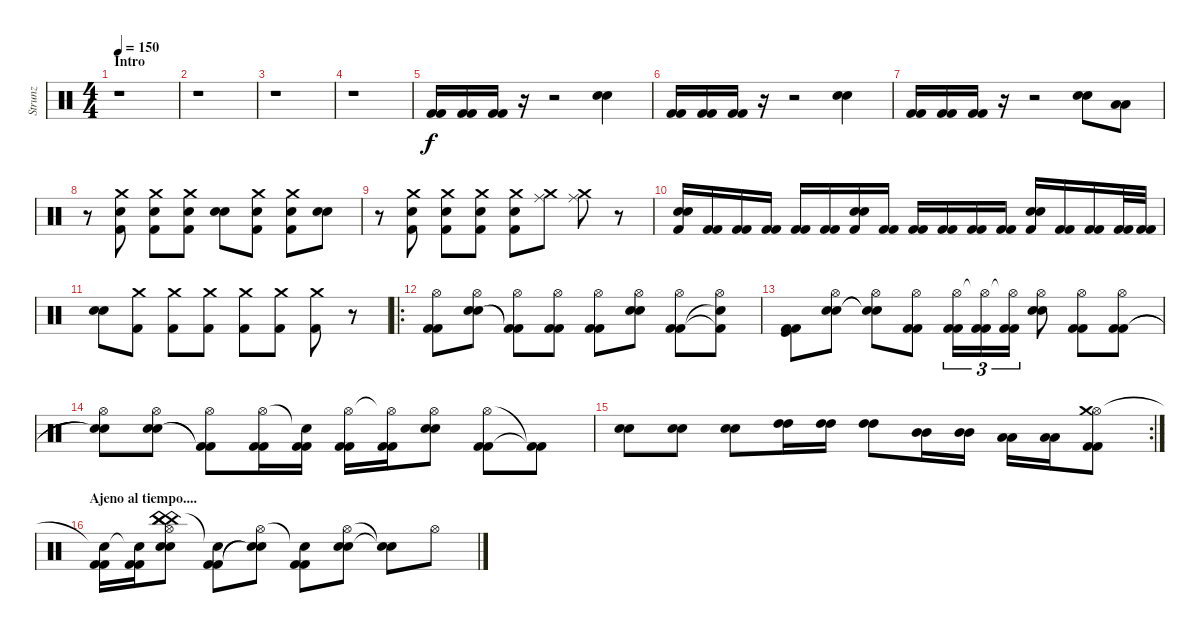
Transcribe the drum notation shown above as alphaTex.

\track ("Strunz" "Strunz") {instrument percussion}
\staff {score}
\articulation defaults
\ts (4 4)
\section ("" "Intro")
\tempo 150
\clef neutral
\ks c
r.1{dy f} |
r.1 |
r.1 |
r.1 |
("Kick (hit) 2" "Kick (hit) 2").16 ("Kick (hit) 2" "Kick (hit) 2").16 ("Kick (hit) 2" "Kick (hit) 2").16 r.16 r.2 ("Snare (hit) 2" "Snare (hit) 2").4 |
("Kick (hit) 2" "Kick (hit) 2").16 ("Kick (hit) 2" "Kick (hit) 2").16 ("Kick (hit) 2" "Kick (hit) 2").16 r.16 r.2 ("Snare (hit) 2" "Snare (hit) 2").4 |
("Kick (hit) 2" "Kick (hit) 2").16 ("Kick (hit) 2" "Kick (hit) 2").16 ("Kick (hit) 2" "Kick (hit) 2").16 r.16 r.2 ("Snare (hit) 2" "Snare (hit) 2").8 ("Low Tom (hit)" "Low Tom (hit)").8 |
r.8 ("Kick (hit) 2" "Crash medium (hit)" "Snare (hit) 2").8 ("Kick (hit) 2" "Crash medium (hit)" "Snare (hit) 2").8 ("Kick (hit) 2" "Crash medium (hit)" "Snare (hit) 2").8 ("Snare (hit) 2" "Snare (hit) 2").8 ("Kick (hit) 2" "Crash medium (hit)" "Snare (hit) 2").8 ("Kick (hit) 2" "Crash medium (hit)" "Snare (hit) 2").8 ("Snare (hit) 2" "Snare (hit) 2").8 |
r.8 ("Kick (hit) 2" "Snare (hit) 2" "Crash medium (hit)").8 ("Kick (hit) 2" "Snare (hit) 2" "Crash medium (hit)").8 ("Kick (hit) 2" "Snare (hit) 2" "Crash medium (hit)").8 ("Kick (hit) 2" "Snare (hit) 2" "Crash medium (hit)").8 ("Crash medium (hit)" "Ride (middle)").8 ("Crash medium (hit)" "Ride (middle)").8 r.8 |
("Kick (hit) 2" "Snare (hit) 2" "Snare (hit) 2").16 ("Kick (hit) 2" "Kick (hit) 2").16 ("Kick (hit) 2" "Kick (hit) 2").16 ("Kick (hit) 2" "Kick (hit) 2").16 ("Kick (hit) 2" "Kick (hit) 2").16 ("Kick (hit) 2" "Kick (hit) 2").16 ("Kick (hit) 2" "Snare (hit) 2" "Snare (hit) 2").16 ("Kick (hit) 2" "Kick (hit) 2").16 ("Kick (hit) 2" "Kick (hit) 2").16 ("Kick (hit) 2" "Kick (hit) 2").16 ("Kick (hit) 2" "Kick (hit) 2").16 ("Kick (hit) 2" "Kick (hit) 2").16 ("Kick (hit) 2" "Snare (hit) 2" "Snare (hit) 2").16 ("Kick (hit) 2" "Kick (hit) 2").16 ("Kick (hit) 2" "Kick (hit) 2").16 ("Kick (hit) 2" "Kick (hit) 2").32 ("Kick (hit) 2" "Kick (hit) 2").32 |
("Snare (hit) 2" "Snare (hit) 2").8 ("Kick (hit) 2" "Crash medium (hit)").8 ("Kick (hit) 2" "Crash medium (hit)").8 ("Kick (hit) 2" "Crash medium (hit)").8 ("Kick (hit) 2" "Crash medium (hit)").8 ("Kick (hit) 2" "Crash medium (hit)").8 ("Kick (hit) 2" "Crash medium (hit)").8 r.8 |
\ro
("Hi-Hat (open)" "Kick (hit) 2" "Kick (hit) 2").8 ("Hi-Hat (open)" "Snare (hit) 2" "Snare (hit) 2").8 ("Hi-Hat (open)" "Kick (hit) 2"{t} "Kick (hit) 2"{t}).8 ("Hi-Hat (open)" "Kick (hit) 2" "Kick (hit) 2").8 ("Hi-Hat (open)" "Kick (hit) 2" "Kick (hit) 2").8 ("Hi-Hat (open)" "Snare (hit) 2" "Snare (hit) 2").8 ("Hi-Hat (open)" "Kick (hit) 2" "Kick (hit) 2").8 ("Hi-Hat (open)" "Kick (hit) 2"{t} "Snare (hit)"{t}).8 |
("Kick (hit)" "Kick (hit) 2" "Kick (hit) 2").8 ("Hi-Hat (open)" "Snare (hit) 2" "Snare (hit) 2").8 ("Hi-Hat (open)" "Snare (hit)"{t} "Snare (hit)"{t}).8 ("Hi-Hat (open)" "Kick (hit) 2" "Kick (hit) 2").8 ("Hi-Hat (open)" "Kick (hit) 2" "Kick (hit) 2").16{tu (3 2)} ("Hi-Hat (open)"{t} "Kick (hit) 2" "Kick (hit) 2").16{tu (3 2)} ("Hi-Hat (open)"{t} "Kick (hit) 2" "Kick (hit) 2").16{tu (3 2)} ("Hi-Hat (open)" "Snare (hit) 2" "Snare (hit) 2").8 ("Hi-Hat (open)" "Kick (hit) 2" "Kick (hit) 2").8 ("Hi-Hat (open)" "Kick (hit) 2" "Kick (hit) 2").8 |
("Hi-Hat (open)" "Snare (hit) 2"{t} "Snare (hit) 2"{t}).8 ("Hi-Hat (open)" "Snare (hit) 2" "Snare (hit) 2").8 ("Hi-Hat (open)" "Kick (hit) 2"{t} "Kick (hit) 2"{t}).8 ("Hi-Hat (open)" "Kick (hit) 2" "Kick (hit) 2").16 ("Snare (hit)"{t} "Kick (hit) 2" "Kick (hit) 2").16 ("Hi-Hat (open)" "Kick (hit) 2" "Kick (hit) 2").16 ("Hi-Hat (open)"{t} "Kick (hit) 2" "Kick (hit) 2").16 ("Hi-Hat (open)" "Snare (hit) 2" "Snare (hit) 2").8 ("Hi-Hat (open)" "Kick (hit) 2" "Kick (hit) 2").8 ("Kick (hit) 2"{t} "Kick (hit) 2"{t}).8 |
\rc 2
("Snare (hit) 2" "Snare (hit) 2").8 ("Snare (hit) 2" "Snare (hit) 2").8 ("Snare (hit) 2" "Snare (hit) 2").8 ("High Tom (hit)" "High Tom (hit)").16 ("High Tom (hit)" "High Tom (hit)").16 ("High Tom (hit)" "High Tom (hit)").8 ("Mid Tom (hit)" "Mid Tom (hit)").16 ("Mid Tom (hit)" "Mid Tom (hit)").16 ("Low Tom (hit)" "Low Tom (hit)").16 ("Low Tom (hit)" "Low Tom (hit)").16 ("Hi-Hat (open)" "Crash medium (hit)" "Kick (hit) 2" "Kick (hit) 2").8 |
\section ("" "Ajeno al tiempo....")
("Snare (hit)"{t} "Kick (hit) 2" "Kick (hit) 2").16 ("Snare (hit)"{t} "Kick (hit) 2" "Kick (hit) 2").16 ("China (hit)" "Hi-Hat (open)" "China (hit)" "Snare (hit) 2" "Snare (hit) 2" "China (hit)").8 ("Snare (hit)"{t} "Kick (hit) 2" "Kick (hit) 2").8 ("Hi-Hat (open)" "Snare (hit)"{t} "Snare (hit)"{t}).8 ("Snare (hit)"{t} "Kick (hit) 2" "Kick (hit) 2").8 ("Hi-Hat (open)" "Snare (hit) 2" "Snare (hit) 2").8 ("Snare (hit)"{t} "Snare (hit)"{t}).8 "Hi-Hat (open)".8
